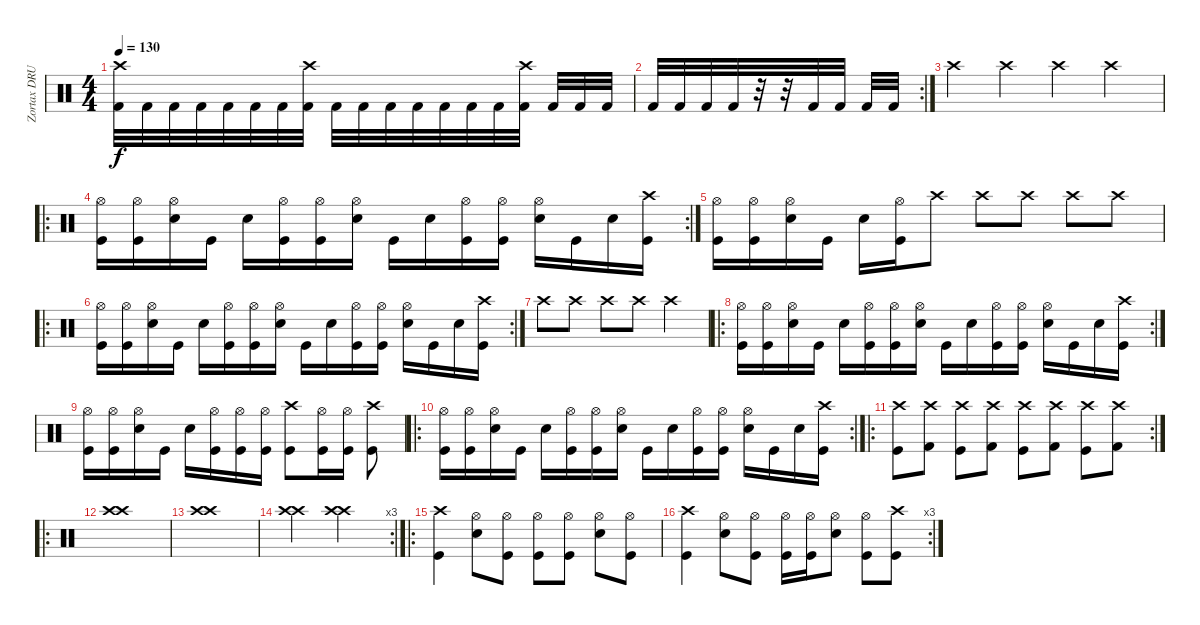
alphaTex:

\track ("Zortax DRUMS" "Zortax DRU") {instrument percussion}
\staff {score}
\articulation defaults
\ts (4 4)
\tempo 130
\clef neutral
\ks c
("Kick (hit) 2" "Crash high (hit)").32{dy f} "Kick (hit) 2".32 "Kick (hit) 2".32 "Kick (hit) 2".32 "Kick (hit) 2".32 "Kick (hit) 2".32 "Kick (hit) 2".32 ("Kick (hit) 2" "Crash high (hit)").32 "Kick (hit) 2".32 "Kick (hit) 2".32 "Kick (hit) 2".32 "Kick (hit) 2".32 "Kick (hit) 2".32 "Kick (hit) 2".32 "Kick (hit) 2".32 ("Kick (hit) 2" "Crash high (hit)").32 "Kick (hit) 2".32 "Kick (hit) 2".32 "Kick (hit) 2".32 |
\rc 2 "Kick (hit) 2".32 "Kick (hit) 2".32 "Kick (hit) 2".32 "Kick (hit) 2".32
r.32 r.32 "Kick (hit) 2".32 "Kick (hit) 2".32 "Kick (hit) 2".32 "Kick (hit) 2".32 |
"Crash high (hit)".4 "Crash high (hit)".4 "Crash high (hit)".4 "Crash high (hit)".4 |
\ro
\rc 2
("Kick (hit)" "Hi-Hat (open)").16 ("Kick (hit)" "Hi-Hat (open)").16 ("Hi-Hat (open)" "Snare (hit) 2").16 "Kick (hit)".16 "Snare (hit) 2".16 ("Kick (hit)" "Hi-Hat (open)").16 ("Kick (hit)" "Hi-Hat (open)").16 ("Hi-Hat (open)" "Snare (hit) 2").16 "Kick (hit)".16 "Snare (hit) 2".16 ("Kick (hit)" "Hi-Hat (open)").16 ("Kick (hit)" "Hi-Hat (open)").16 ("Hi-Hat (open)" "Snare (hit) 2").16 "Kick (hit)".16 "Snare (hit) 2".16 ("Kick (hit)" "Crash high (hit)").16 |
("Kick (hit)" "Hi-Hat (open)").16 ("Kick (hit)" "Hi-Hat (open)").16 ("Hi-Hat (open)" "Snare (hit) 2").16 "Kick (hit)".16 "Snare (hit) 2".16 ("Kick (hit)" "Hi-Hat (open)").16 "Crash high (hit)".8 "Crash high (hit)".8 "Crash high (hit)".8 "Crash high (hit)".8 "Crash high (hit)".8 |
\ro
\rc 2
("Kick (hit)" "Hi-Hat (open)").16 ("Kick (hit)" "Hi-Hat (open)").16 ("Hi-Hat (open)" "Snare (hit) 2").16 "Kick (hit)".16 "Snare (hit) 2".16 ("Kick (hit)" "Hi-Hat (open)").16 ("Kick (hit)" "Hi-Hat (open)").16 ("Hi-Hat (open)" "Snare (hit) 2").16 "Kick (hit)".16 "Snare (hit) 2".16 ("Kick (hit)" "Hi-Hat (open)").16 ("Kick (hit)" "Hi-Hat (open)").16 ("Hi-Hat (open)" "Snare (hit) 2").16 "Kick (hit)".16 "Snare (hit) 2".16 ("Kick (hit)" "Crash high (hit)").16 |
"Crash high (hit)".8 "Crash high (hit)".8 "Crash high (hit)".8 "Crash high (hit)".8 "Crash high (hit)".4 |
\ro
\rc 2
("Kick (hit)" "Hi-Hat (open)").16 ("Kick (hit)" "Hi-Hat (open)").16 ("Hi-Hat (open)" "Snare (hit) 2").16 "Kick (hit)".16 "Snare (hit) 2".16 ("Kick (hit)" "Hi-Hat (open)").16 ("Kick (hit)" "Hi-Hat (open)").16 ("Hi-Hat (open)" "Snare (hit) 2").16 "Kick (hit)".16 "Snare (hit) 2".16 ("Kick (hit)" "Hi-Hat (open)").16 ("Kick (hit)" "Hi-Hat (open)").16 ("Hi-Hat (open)" "Snare (hit) 2").16 "Kick (hit)".16 "Snare (hit) 2".16 ("Kick (hit)" "Crash high (hit)").16 |
("Kick (hit)" "Hi-Hat (open)").16 ("Kick (hit)" "Hi-Hat (open)").16 ("Hi-Hat (open)" "Snare (hit) 2").16 "Kick (hit)".16 "Snare (hit) 2".16 ("Kick (hit)" "Hi-Hat (open)").16 ("Kick (hit)" "Hi-Hat (open)").16 ("Kick (hit)" "Hi-Hat (open)").16 ("Kick (hit)" "Crash high (hit)").8 ("Kick (hit)" "Hi-Hat (open)").16 ("Kick (hit)" "Hi-Hat (open)").16 ("Kick (hit)" "Crash high (hit)").8 |
\ro
\rc 2
("Kick (hit)" "Hi-Hat (open)").16 ("Kick (hit)" "Hi-Hat (open)").16 ("Hi-Hat (open)" "Snare (hit) 2").16 "Kick (hit)".16 "Snare (hit) 2".16 ("Kick (hit)" "Hi-Hat (open)").16 ("Kick (hit)" "Hi-Hat (open)").16 ("Hi-Hat (open)" "Snare (hit) 2").16 "Kick (hit)".16 "Snare (hit) 2".16 ("Kick (hit)" "Hi-Hat (open)").16 ("Kick (hit)" "Hi-Hat (open)").16 ("Hi-Hat (open)" "Snare (hit) 2").16 "Kick (hit)".16 "Snare (hit) 2".16 ("Kick (hit)" "Crash high (hit)").16 |
\ro
\rc 2
("Kick (hit)" "Crash high (hit)").8 ("Kick (hit) 2" "Crash high (hit)").8 ("Kick (hit)" "Crash high (hit)").8 ("Kick (hit) 2" "Crash high (hit)").8 ("Kick (hit)" "Crash high (hit)").8 ("Kick (hit) 2" "Crash high (hit)").8 ("Kick (hit)" "Crash high (hit)").8 ("Kick (hit) 2" "Crash high (hit)").8 |
\ro
("Crash high (hit)" "Crash high (hit)").1 |
("Crash high (hit)" "Crash high (hit)").1 |
\rc 3
("Crash high (hit)" "Crash high (hit)").2 ("Crash high (hit)" "Crash high (hit)").2 |
\ro
("Kick (hit)" "Crash high (hit)").4 ("Snare (hit) 2" "Hi-Hat (open)").8 ("Kick (hit)" "Hi-Hat (open)").8 ("Kick (hit)" "Hi-Hat (open)").8 ("Kick (hit)" "Hi-Hat (open)").8 ("Snare (hit) 2" "Hi-Hat (open)").8 ("Kick (hit)" "Hi-Hat (open)").8 |
\rc 3
("Kick (hit)" "Crash high (hit)").4 ("Snare (hit) 2" "Hi-Hat (open)").8 ("Kick (hit)" "Hi-Hat (open)").8 ("Kick (hit)" "Hi-Hat (open)").16 ("Kick (hit)" "Hi-Hat (open)").16 ("Snare (hit) 2" "Hi-Hat (open)").8 ("Kick (hit)" "Hi-Hat (open)").8 ("Kick (hit)" "Crash high (hit)").8
